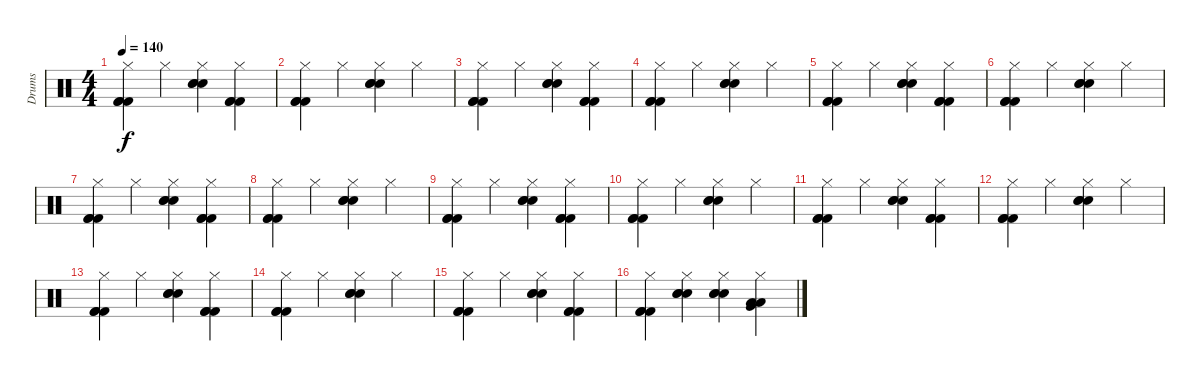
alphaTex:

\track ("Drums" "Drums") {instrument percussion}
\staff {score}
\articulation defaults
\ts (4 4)
\tempo 140
\clef neutral
\ks c
("Hi-Hat (closed)" "Kick (hit) 2" "Kick (hit) 2" "Kick (hit) 2").4{dy f} "Hi-Hat (closed)".4 ("Hi-Hat (closed)" "Snare (hit) 2" "Snare (hit) 2" "Snare (hit) 2").4 ("Hi-Hat (closed)" "Kick (hit) 2" "Kick (hit) 2" "Kick (hit) 2").4 |
("Hi-Hat (closed)" "Kick (hit) 2" "Kick (hit) 2" "Kick (hit) 2").4 "Hi-Hat (closed)".4 ("Hi-Hat (closed)" "Snare (hit) 2" "Snare (hit) 2" "Snare (hit) 2").4 "Hi-Hat (closed)".4 |
("Hi-Hat (closed)" "Kick (hit) 2" "Kick (hit) 2" "Kick (hit) 2").4 "Hi-Hat (closed)".4 ("Hi-Hat (closed)" "Snare (hit) 2" "Snare (hit) 2" "Snare (hit) 2").4 ("Hi-Hat (closed)" "Kick (hit) 2" "Kick (hit) 2" "Kick (hit) 2").4 |
("Hi-Hat (closed)" "Kick (hit) 2" "Kick (hit) 2" "Kick (hit) 2").4 "Hi-Hat (closed)".4 ("Hi-Hat (closed)" "Snare (hit) 2" "Snare (hit) 2" "Snare (hit) 2").4 "Hi-Hat (closed)".4 |
("Hi-Hat (closed)" "Kick (hit) 2" "Kick (hit) 2" "Kick (hit) 2").4 "Hi-Hat (closed)".4 ("Hi-Hat (closed)" "Snare (hit) 2" "Snare (hit) 2" "Snare (hit) 2").4 ("Hi-Hat (closed)" "Kick (hit) 2" "Kick (hit) 2" "Kick (hit) 2").4 |
("Hi-Hat (closed)" "Kick (hit) 2" "Kick (hit) 2" "Kick (hit) 2").4 "Hi-Hat (closed)".4 ("Hi-Hat (closed)" "Snare (hit) 2" "Snare (hit) 2" "Snare (hit) 2").4 "Hi-Hat (closed)".4 |
("Hi-Hat (closed)" "Kick (hit) 2" "Kick (hit) 2" "Kick (hit) 2").4 "Hi-Hat (closed)".4 ("Hi-Hat (closed)" "Snare (hit) 2" "Snare (hit) 2" "Snare (hit) 2").4 ("Hi-Hat (closed)" "Kick (hit) 2" "Kick (hit) 2" "Kick (hit) 2").4 |
("Hi-Hat (closed)" "Kick (hit) 2" "Kick (hit) 2" "Kick (hit) 2").4 "Hi-Hat (closed)".4 ("Hi-Hat (closed)" "Snare (hit) 2" "Snare (hit) 2" "Snare (hit) 2").4 "Hi-Hat (closed)".4 |
("Hi-Hat (closed)" "Kick (hit) 2" "Kick (hit) 2" "Kick (hit) 2").4 "Hi-Hat (closed)".4 ("Hi-Hat (closed)" "Snare (hit) 2" "Snare (hit) 2" "Snare (hit) 2").4 ("Hi-Hat (closed)" "Kick (hit) 2" "Kick (hit) 2" "Kick (hit) 2").4 |
("Hi-Hat (closed)" "Kick (hit) 2" "Kick (hit) 2" "Kick (hit) 2").4 "Hi-Hat (closed)".4 ("Hi-Hat (closed)" "Snare (hit) 2" "Snare (hit) 2" "Snare (hit) 2").4 "Hi-Hat (closed)".4 |
("Hi-Hat (closed)" "Kick (hit) 2" "Kick (hit) 2" "Kick (hit) 2").4 "Hi-Hat (closed)".4 ("Hi-Hat (closed)" "Snare (hit) 2" "Snare (hit) 2" "Snare (hit) 2").4 ("Hi-Hat (closed)" "Kick (hit) 2" "Kick (hit) 2" "Kick (hit) 2").4 |
("Hi-Hat (closed)" "Kick (hit) 2" "Kick (hit) 2" "Kick (hit) 2").4 "Hi-Hat (closed)".4 ("Hi-Hat (closed)" "Snare (hit) 2" "Snare (hit) 2" "Snare (hit) 2").4 "Hi-Hat (closed)".4 |
("Hi-Hat (closed)" "Kick (hit) 2" "Kick (hit) 2" "Kick (hit) 2").4 "Hi-Hat (closed)".4 ("Hi-Hat (closed)" "Snare (hit) 2" "Snare (hit) 2" "Snare (hit) 2").4 ("Hi-Hat (closed)" "Kick (hit) 2" "Kick (hit) 2" "Kick (hit) 2").4 |
("Hi-Hat (closed)" "Kick (hit) 2" "Kick (hit) 2" "Kick (hit) 2").4 "Hi-Hat (closed)".4 ("Hi-Hat (closed)" "Snare (hit) 2" "Snare (hit) 2" "Snare (hit) 2").4 "Hi-Hat (closed)".4 |
("Hi-Hat (closed)" "Kick (hit) 2" "Kick (hit) 2" "Kick (hit) 2").4 "Hi-Hat (closed)".4 ("Hi-Hat (closed)" "Snare (hit) 2" "Snare (hit) 2" "Snare (hit) 2").4 ("Hi-Hat (closed)" "Kick (hit) 2" "Kick (hit) 2" "Kick (hit) 2").4 |
("Hi-Hat (closed)" "Kick (hit) 2" "Kick (hit) 2" "Kick (hit) 2").4 ("Hi-Hat (closed)" "Snare (hit) 2" "Snare (hit) 2" "Snare (hit) 2").4 ("Hi-Hat (closed)" "Snare (hit) 2" "Snare (hit) 2" "Snare (hit) 2").4 ("Hi-Hat (closed)" "Low Tom (hit)" "Very Low Tom (hit)" "Low Floor Tom (hit)").4
